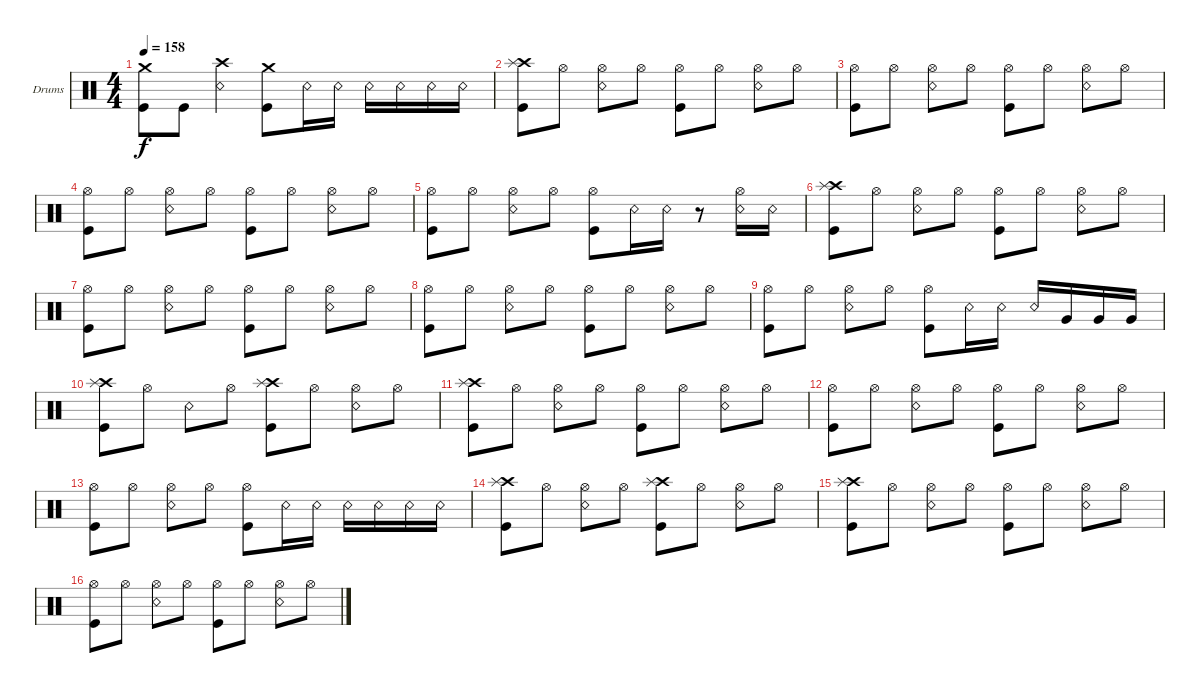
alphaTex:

\bracketExtendMode groupsimilarinstruments
\firstSystemTrackNameOrientation horizontal
\otherSystemsTrackNameOrientation horizontal
\track ("Drumkit" "Drums") {instrument percussion}
\staff {score}
\articulation defaults
\ts (4 4)
\tempo 158
\clef neutral
\ks c
("Crash medium (hit)" "Kick (hit)").8{dy f} "Kick (hit)".8 ("Crash high (hit)" "Snare (rim shot)").4 ("Crash medium (hit)" "Kick (hit)").8 "Snare (rim shot)".16 "Snare (rim shot)".16 "Snare (rim shot)".16 "Snare (rim shot)".16 "Snare (rim shot)".16 "Snare (rim shot)".16 |
("Kick (hit)" "Crash high (hit)" "Splash (hit)").8 "Hi-Hat (open)".8 ("Hi-Hat (open)" "Snare (rim shot)").8 "Hi-Hat (open)".8 ("Hi-Hat (open)" "Kick (hit)").8 "Hi-Hat (open)".8 ("Hi-Hat (open)" "Snare (rim shot)").8 "Hi-Hat (open)".8 |
("Hi-Hat (open)" "Kick (hit)").8 "Hi-Hat (open)".8 ("Hi-Hat (open)" "Snare (rim shot)").8 "Hi-Hat (open)".8 ("Hi-Hat (open)" "Kick (hit)").8 "Hi-Hat (open)".8 ("Hi-Hat (open)" "Snare (rim shot)").8 "Hi-Hat (open)".8 |
("Hi-Hat (open)" "Kick (hit)").8 "Hi-Hat (open)".8 ("Hi-Hat (open)" "Snare (rim shot)").8 "Hi-Hat (open)".8 ("Hi-Hat (open)" "Kick (hit)").8 "Hi-Hat (open)".8 ("Hi-Hat (open)" "Snare (rim shot)").8 "Hi-Hat (open)".8 |
("Hi-Hat (open)" "Kick (hit)").8 "Hi-Hat (open)".8 ("Hi-Hat (open)" "Snare (rim shot)").8 "Hi-Hat (open)".8 ("Hi-Hat (open)" "Kick (hit)").8 "Snare (rim shot)".16 "Snare (rim shot)".16 r.8 ("Snare (rim shot)" "Hi-Hat (open)").16 "Snare (rim shot)".16 |
("Kick (hit)" "Crash high (hit)" "Splash (hit)").8 "Hi-Hat (open)".8 ("Hi-Hat (open)" "Snare (rim shot)").8 "Hi-Hat (open)".8 ("Hi-Hat (open)" "Kick (hit)").8 "Hi-Hat (open)".8 ("Hi-Hat (open)" "Snare (rim shot)").8 "Hi-Hat (open)".8 |
("Hi-Hat (open)" "Kick (hit)").8 "Hi-Hat (open)".8 ("Hi-Hat (open)" "Snare (rim shot)").8 "Hi-Hat (open)".8 ("Hi-Hat (open)" "Kick (hit)").8 "Hi-Hat (open)".8 ("Hi-Hat (open)" "Snare (rim shot)").8 "Hi-Hat (open)".8 |
("Hi-Hat (open)" "Kick (hit)").8 "Hi-Hat (open)".8 ("Hi-Hat (open)" "Snare (rim shot)").8 "Hi-Hat (open)".8 ("Hi-Hat (open)" "Kick (hit)").8 "Hi-Hat (open)".8 ("Hi-Hat (open)" "Snare (rim shot)").8 "Hi-Hat (open)".8 |
("Hi-Hat (open)" "Kick (hit)").8 "Hi-Hat (open)".8 ("Hi-Hat (open)" "Snare (rim shot)").8 "Hi-Hat (open)".8 ("Hi-Hat (open)" "Kick (hit)").8 "Snare (rim shot)".16 "Snare (rim shot)".16 "Snare (rim shot)".16 "Very Low Tom (hit)".16 "Very Low Tom (hit)".16 "Very Low Tom (hit)".16 |
("Kick (hit)" "Crash high (hit)" "Splash (hit)").8 "Hi-Hat (open)".8 "Snare (rim shot)".8 "Hi-Hat (open)".8 ("Kick (hit)" "Crash high (hit)" "Splash (hit)").8 "Hi-Hat (open)".8 ("Hi-Hat (open)" "Snare (rim shot)").8 "Hi-Hat (open)".8 |
("Kick (hit)" "Crash high (hit)" "Splash (hit)").8 "Hi-Hat (open)".8 ("Hi-Hat (open)" "Snare (rim shot)").8 "Hi-Hat (open)".8 ("Hi-Hat (open)" "Kick (hit)").8 "Hi-Hat (open)".8 ("Hi-Hat (open)" "Snare (rim shot)").8 "Hi-Hat (open)".8 |
("Hi-Hat (open)" "Kick (hit)").8 "Hi-Hat (open)".8 ("Hi-Hat (open)" "Snare (rim shot)").8 "Hi-Hat (open)".8 ("Hi-Hat (open)" "Kick (hit)").8 "Hi-Hat (open)".8 ("Hi-Hat (open)" "Snare (rim shot)").8 "Hi-Hat (open)".8 |
("Hi-Hat (open)" "Kick (hit)").8 "Hi-Hat (open)".8 ("Hi-Hat (open)" "Snare (rim shot)").8 "Hi-Hat (open)".8 ("Hi-Hat (open)" "Kick (hit)").8 "Snare (rim shot)".16 "Snare (rim shot)".16 "Snare (rim shot)".16 "Snare (rim shot)".16 "Snare (rim shot)".16 "Snare (rim shot)".16 |
("Kick (hit)" "Crash high (hit)" "Splash (hit)").8 "Hi-Hat (open)".8 ("Hi-Hat (open)" "Snare (rim shot)").8 "Hi-Hat (open)".8 ("Kick (hit)" "Crash high (hit)" "Splash (hit)").8 "Hi-Hat (open)".8 ("Hi-Hat (open)" "Snare (rim shot)").8 "Hi-Hat (open)".8 |
("Kick (hit)" "Crash high (hit)" "Splash (hit)").8 "Hi-Hat (open)".8 ("Hi-Hat (open)" "Snare (rim shot)").8 "Hi-Hat (open)".8 ("Hi-Hat (open)" "Kick (hit)").8 "Hi-Hat (open)".8 ("Hi-Hat (open)" "Snare (rim shot)").8 "Hi-Hat (open)".8 |
("Hi-Hat (open)" "Kick (hit)").8 "Hi-Hat (open)".8 ("Hi-Hat (open)" "Snare (rim shot)").8 "Hi-Hat (open)".8 ("Hi-Hat (open)" "Kick (hit)").8 "Hi-Hat (open)".8 ("Hi-Hat (open)" "Snare (rim shot)").8 "Hi-Hat (open)".8
